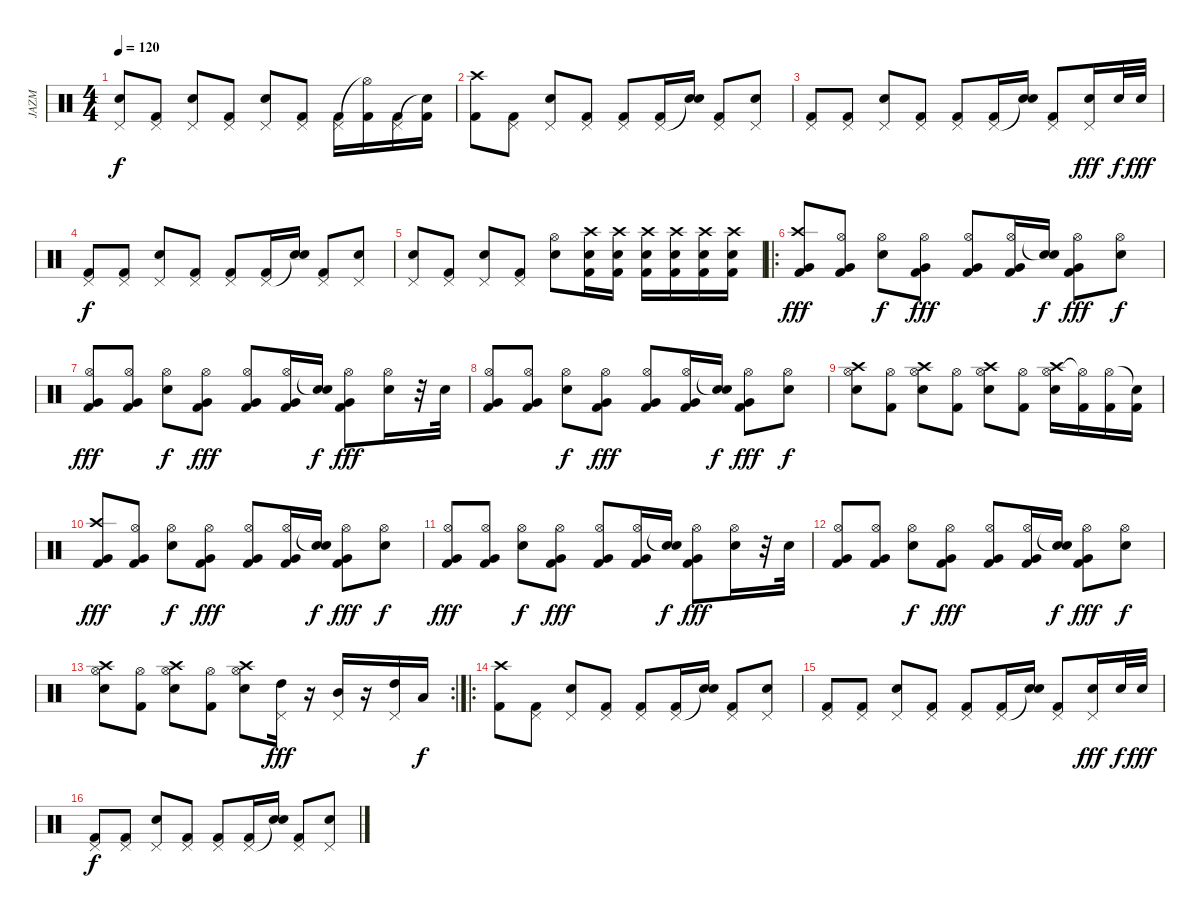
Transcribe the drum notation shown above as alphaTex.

\track ("JAZM" "JAZM") {instrument percussion}
\staff {score}
\articulation defaults
\ts (4 4)
\tempo 120
\clef neutral
\ks c
("Pedal Hi-Hat (hit)" "Electric Snare (hit)").8{dy f} ("Pedal Hi-Hat (hit)" "Kick (hit) 2").8 ("Pedal Hi-Hat (hit)" "Electric Snare (hit)").8 ("Pedal Hi-Hat (hit)" "Kick (hit) 2").8 ("Pedal Hi-Hat (hit)" "Electric Snare (hit)").8 ("Pedal Hi-Hat (hit)" "Kick (hit) 2").8 ("Pedal Hi-Hat (hit)" "Kick (hit) 2").16 ("Hi-Hat (open)"{t} "Kick (hit) 2").16 ("Pedal Hi-Hat (hit)" "Kick (hit) 2").16 ("Snare (hit)"{t} "Kick (hit) 2").16 |
("Crash high (hit)" "Kick (hit) 2").8 ("Pedal Hi-Hat (hit)" "Kick (hit) 2").8 ("Pedal Hi-Hat (hit)" "Electric Snare (hit)").8 ("Pedal Hi-Hat (hit)" "Kick (hit) 2").8 ("Pedal Hi-Hat (hit)" "Kick (hit) 2").8 ("Pedal Hi-Hat (hit)" "Kick (hit) 2").16 ("Snare (hit)"{t} "Electric Snare (hit)").16 ("Pedal Hi-Hat (hit)" "Kick (hit) 2").8 ("Pedal Hi-Hat (hit)" "Electric Snare (hit)").8 |
("Pedal Hi-Hat (hit)" "Kick (hit) 2").8 ("Pedal Hi-Hat (hit)" "Kick (hit) 2").8 ("Pedal Hi-Hat (hit)" "Electric Snare (hit)").8 ("Pedal Hi-Hat (hit)" "Kick (hit) 2").8 ("Pedal Hi-Hat (hit)" "Kick (hit) 2").8 ("Pedal Hi-Hat (hit)" "Kick (hit) 2").16 ("Snare (hit)"{t} "Electric Snare (hit)").16 ("Pedal Hi-Hat (hit)" "Kick (hit) 2").8 ("Pedal Hi-Hat (hit)" "Electric Snare (hit)").16{dy fff} "Electric Snare (hit)".32{dy f} "Electric Snare (hit)".32{dy fff} |
("Pedal Hi-Hat (hit)" "Kick (hit) 2").8{dy f} ("Pedal Hi-Hat (hit)" "Kick (hit) 2").8 ("Pedal Hi-Hat (hit)" "Electric Snare (hit)").8 ("Pedal Hi-Hat (hit)" "Kick (hit) 2").8 ("Pedal Hi-Hat (hit)" "Kick (hit) 2").8 ("Pedal Hi-Hat (hit)" "Kick (hit) 2").16 ("Snare (hit)"{t} "Electric Snare (hit)").16 ("Pedal Hi-Hat (hit)" "Kick (hit) 2").8 ("Pedal Hi-Hat (hit)" "Electric Snare (hit)").8 |
("Pedal Hi-Hat (hit)" "Electric Snare (hit)").8 ("Pedal Hi-Hat (hit)" "Kick (hit) 2").8 ("Pedal Hi-Hat (hit)" "Electric Snare (hit)").8 ("Pedal Hi-Hat (hit)" "Kick (hit) 2").8 ("Hi-Hat (open)" "Electric Snare (hit)").8 ("Crash high (hit)" "Electric Snare (hit)" "Kick (hit) 2").16 ("Crash high (hit)" "Electric Snare (hit)" "Kick (hit) 2").16 ("Crash high (hit)" "Electric Snare (hit)" "Kick (hit) 2").16 ("Crash high (hit)" "Electric Snare (hit)" "Kick (hit) 2").16 ("Crash high (hit)" "Electric Snare (hit)" "Kick (hit) 2").16 ("Crash high (hit)" "Electric Snare (hit)" "Kick (hit) 2").16 |
\ro
("Crash high (hit)" "Very Low Tom (hit)" "Kick (hit) 2").8{dy fff} ("Hi-Hat (open)" "Very Low Tom (hit)" "Kick (hit) 2").8 ("Hi-Hat (open)" "Electric Snare (hit)").8{dy f} ("Hi-Hat (open)" "Very Low Tom (hit)" "Kick (hit) 2").8{dy fff} ("Hi-Hat (open)" "Very Low Tom (hit)" "Kick (hit) 2").8 ("Hi-Hat (open)" "Very Low Tom (hit)" "Kick (hit) 2").16 ("Snare (hit)"{t} "Electric Snare (hit)").16{dy f} ("Hi-Hat (open)" "Very Low Tom (hit)" "Kick (hit) 2").8{dy fff} ("Hi-Hat (open)" "Electric Snare (hit)").8{dy f} |
("Hi-Hat (open)" "Very Low Tom (hit)" "Kick (hit) 2").8{dy fff} ("Hi-Hat (open)" "Very Low Tom (hit)" "Kick (hit) 2").8 ("Hi-Hat (open)" "Electric Snare (hit)").8{dy f} ("Hi-Hat (open)" "Very Low Tom (hit)" "Kick (hit) 2").8{dy fff} ("Hi-Hat (open)" "Very Low Tom (hit)" "Kick (hit) 2").8 ("Hi-Hat (open)" "Very Low Tom (hit)" "Kick (hit) 2").16 ("Snare (hit)"{t} "Electric Snare (hit)").16{dy f} ("Hi-Hat (open)" "Very Low Tom (hit)" "Kick (hit) 2").8{dy fff} ("Hi-Hat (open)" "Electric Snare (hit)").16 r.32 "Electric Snare (hit)".32 |
("Hi-Hat (open)" "Very Low Tom (hit)" "Kick (hit) 2").8 ("Hi-Hat (open)" "Very Low Tom (hit)" "Kick (hit) 2").8 ("Hi-Hat (open)" "Electric Snare (hit)").8{dy f} ("Hi-Hat (open)" "Very Low Tom (hit)" "Kick (hit) 2").8{dy fff} ("Hi-Hat (open)" "Very Low Tom (hit)" "Kick (hit) 2").8 ("Hi-Hat (open)" "Very Low Tom (hit)" "Kick (hit) 2").16 ("Snare (hit)"{t} "Electric Snare (hit)").16{dy f} ("Hi-Hat (open)" "Very Low Tom (hit)" "Kick (hit) 2").8{dy fff} ("Hi-Hat (open)" "Electric Snare (hit)").8{dy f} |
("Hi-Hat (open)" "Crash high (hit)" "Electric Snare (hit)").8 ("Hi-Hat (open)" "Kick (hit) 2").8 ("Hi-Hat (open)" "Crash high (hit)" "Electric Snare (hit)").8 ("Hi-Hat (open)" "Kick (hit) 2").8 ("Hi-Hat (open)" "Crash high (hit)" "Electric Snare (hit)").8 ("Hi-Hat (open)" "Kick (hit) 2").8 ("Hi-Hat (open)" "Crash high (hit)" "Electric Snare (hit)").16 ("Hi-Hat (open)"{t} "Kick (hit) 2").16 ("Hi-Hat (open)" "Kick (hit) 2").16 ("Snare (hit)"{t} "Kick (hit) 2").16 |
("Crash high (hit)" "Very Low Tom (hit)" "Kick (hit) 2").8{dy fff} ("Hi-Hat (open)" "Very Low Tom (hit)" "Kick (hit) 2").8 ("Hi-Hat (open)" "Electric Snare (hit)").8{dy f} ("Hi-Hat (open)" "Very Low Tom (hit)" "Kick (hit) 2").8{dy fff} ("Hi-Hat (open)" "Very Low Tom (hit)" "Kick (hit) 2").8 ("Hi-Hat (open)" "Very Low Tom (hit)" "Kick (hit) 2").16 ("Snare (hit)"{t} "Electric Snare (hit)").16{dy f} ("Hi-Hat (open)" "Very Low Tom (hit)" "Kick (hit) 2").8{dy fff} ("Hi-Hat (open)" "Electric Snare (hit)").8{dy f} |
("Hi-Hat (open)" "Very Low Tom (hit)" "Kick (hit) 2").8{dy fff} ("Hi-Hat (open)" "Very Low Tom (hit)" "Kick (hit) 2").8 ("Hi-Hat (open)" "Electric Snare (hit)").8{dy f} ("Hi-Hat (open)" "Very Low Tom (hit)" "Kick (hit) 2").8{dy fff} ("Hi-Hat (open)" "Very Low Tom (hit)" "Kick (hit) 2").8 ("Hi-Hat (open)" "Very Low Tom (hit)" "Kick (hit) 2").16 ("Snare (hit)"{t} "Electric Snare (hit)").16{dy f} ("Hi-Hat (open)" "Very Low Tom (hit)" "Kick (hit) 2").8{dy fff} ("Hi-Hat (open)" "Electric Snare (hit)").16 r.32 "Electric Snare (hit)".32 |
("Hi-Hat (open)" "Very Low Tom (hit)" "Kick (hit) 2").8 ("Hi-Hat (open)" "Very Low Tom (hit)" "Kick (hit) 2").8 ("Hi-Hat (open)" "Electric Snare (hit)").8{dy f} ("Hi-Hat (open)" "Very Low Tom (hit)" "Kick (hit) 2").8{dy fff} ("Hi-Hat (open)" "Very Low Tom (hit)" "Kick (hit) 2").8 ("Hi-Hat (open)" "Very Low Tom (hit)" "Kick (hit) 2").16 ("Snare (hit)"{t} "Electric Snare (hit)").16{dy f} ("Hi-Hat (open)" "Very Low Tom (hit)" "Kick (hit) 2").8{dy fff} ("Hi-Hat (open)" "Electric Snare (hit)").8{dy f} |
\rc 2
("Hi-Hat (open)" "Crash high (hit)" "Electric Snare (hit)").8 ("Hi-Hat (open)" "Kick (hit) 2").8 ("Hi-Hat (open)" "Crash high (hit)" "Electric Snare (hit)").8 ("Hi-Hat (open)" "Kick (hit) 2").8 ("Hi-Hat (open)" "Crash high (hit)" "Electric Snare (hit)").8 ("Pedal Hi-Hat (hit)" "High Tom (hit)").16{dy fff} r.16 ("Pedal Hi-Hat (hit)" "Mid Tom (hit)").16 r.16 ("Pedal Hi-Hat (hit)" "High Tom (hit)").16 "Low Tom (hit)".16{dy f} |
\ro
("Crash high (hit)" "Kick (hit) 2").8 ("Pedal Hi-Hat (hit)" "Kick (hit) 2").8 ("Pedal Hi-Hat (hit)" "Electric Snare (hit)").8 ("Pedal Hi-Hat (hit)" "Kick (hit) 2").8 ("Pedal Hi-Hat (hit)" "Kick (hit) 2").8 ("Pedal Hi-Hat (hit)" "Kick (hit) 2").16 ("Snare (hit)"{t} "Electric Snare (hit)").16 ("Pedal Hi-Hat (hit)" "Kick (hit) 2").8 ("Pedal Hi-Hat (hit)" "Electric Snare (hit)").8 |
("Pedal Hi-Hat (hit)" "Kick (hit) 2").8 ("Pedal Hi-Hat (hit)" "Kick (hit) 2").8 ("Pedal Hi-Hat (hit)" "Electric Snare (hit)").8 ("Pedal Hi-Hat (hit)" "Kick (hit) 2").8 ("Pedal Hi-Hat (hit)" "Kick (hit) 2").8 ("Pedal Hi-Hat (hit)" "Kick (hit) 2").16 ("Snare (hit)"{t} "Electric Snare (hit)").16 ("Pedal Hi-Hat (hit)" "Kick (hit) 2").8 ("Pedal Hi-Hat (hit)" "Electric Snare (hit)").16{dy fff} "Electric Snare (hit)".32{dy f} "Electric Snare (hit)".32{dy fff} |
("Pedal Hi-Hat (hit)" "Kick (hit) 2").8{dy f} ("Pedal Hi-Hat (hit)" "Kick (hit) 2").8 ("Pedal Hi-Hat (hit)" "Electric Snare (hit)").8 ("Pedal Hi-Hat (hit)" "Kick (hit) 2").8 ("Pedal Hi-Hat (hit)" "Kick (hit) 2").8 ("Pedal Hi-Hat (hit)" "Kick (hit) 2").16 ("Snare (hit)"{t} "Electric Snare (hit)").16 ("Pedal Hi-Hat (hit)" "Kick (hit) 2").8 ("Pedal Hi-Hat (hit)" "Electric Snare (hit)").8
